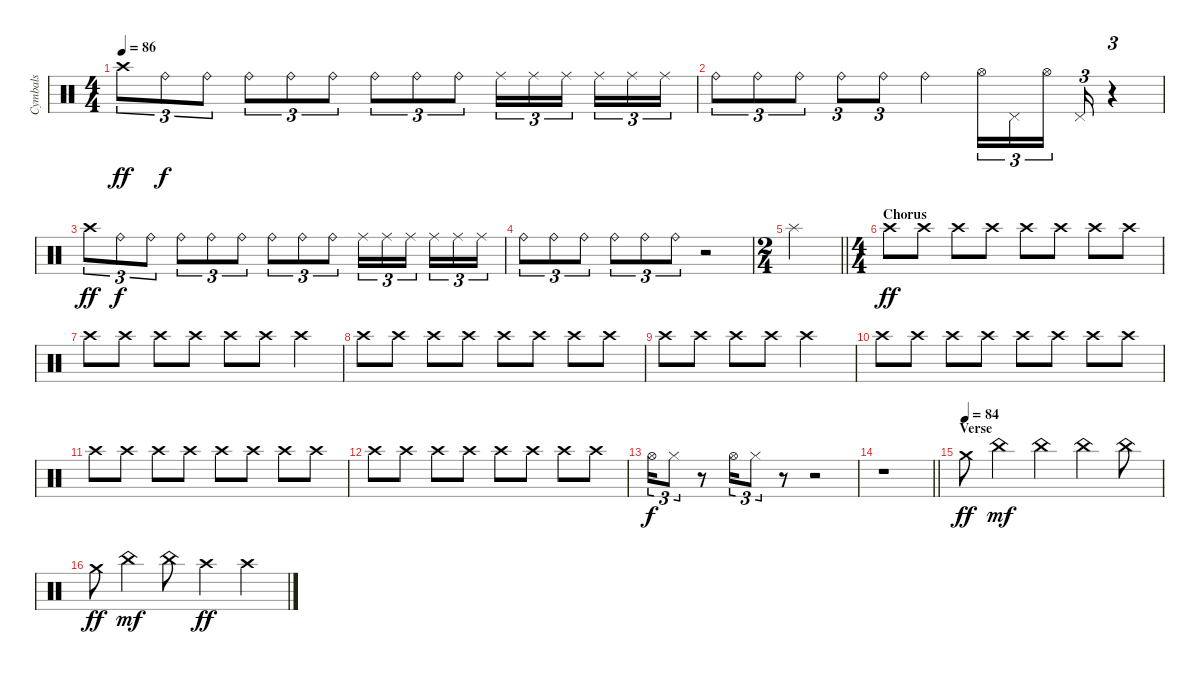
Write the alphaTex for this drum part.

\track ("Cymbals" "Cymbals") {instrument percussion}
\staff {score}
\articulation defaults
\ts (4 4)
\tempo 86
\clef neutral
\ks c "Crash high (hit)".8{tu (3 2) dy ff} "Ride (bell)".8{tu (3 2) dy f} "Ride (bell)".8{tu (3 2)} "Ride (bell)".8{tu (3 2)} "Ride (bell)".8{tu (3 2)} "Ride (bell)".8{tu (3 2)} "Ride (bell)".8{tu (3 2)} "Ride (bell)".8{tu (3 2)} "Ride (bell)".8{tu (3 2)} "Ride (middle)".16{tu (3 2)} "Ride (middle)".16{tu (3 2)} "Ride (middle)".16{tu (3 2) beam splitsecondary} "Ride (middle)".16{tu (3 2)} "Ride (middle)".16{tu (3 2)} "Ride (middle)".16{tu (3 2)}
|
"Ride (bell)".8{tu (3 2)} "Ride (bell)".8{tu (3 2)} "Ride (bell)".8{tu (3 2)} "Ride (bell)".8{tu (3 2)} "Ride (bell)".8{tu (3 2)} "Ride (bell)".4 "Hi-Hat (open)".16{tu (3 2)} "Pedal Hi-Hat (hit)".16{tu (3 2)} "Hi-Hat (open)".16{tu (3 2)} "Pedal Hi-Hat (hit)".16{tu (3 2)} r.4{tu (3 2)} |
"Crash high (hit)".8{tu (3 2) dy ff} "Ride (bell)".8{tu (3 2) dy f} "Ride (bell)".8{tu (3 2)} "Ride (bell)".8{tu (3 2)} "Ride (bell)".8{tu (3 2)} "Ride (bell)".8{tu (3 2)} "Ride (bell)".8{tu (3 2)} "Ride (bell)".8{tu (3 2)} "Ride (bell)".8{tu (3 2)} "Ride (middle)".16{tu (3 2)} "Ride (middle)".16{tu (3 2)} "Ride (middle)".16{tu (3 2) beam splitsecondary} "Ride (middle)".16{tu (3 2)} "Ride (middle)".16{tu (3 2)} "Ride (middle)".16{tu (3 2)} |
"Ride (bell)".8{tu (3 2)} "Ride (bell)".8{tu (3 2)} "Ride (bell)".8{tu (3 2)} "Ride (bell)".8{tu (3 2)} "Ride (bell)".8{tu (3 2)} "Ride (bell)".8{tu (3 2)} r.2 |
\ts (2 4)
\barLineRight lightlight "Splash (hit)".2
|
\ts (4 4)
\section ("" "Chorus")
"Crash high (hit)".8{dy ff} "Crash high (hit)".8 "Crash high (hit)".8 "Crash high (hit)".8 "Crash high (hit)".8 "Crash high (hit)".8 "Crash high (hit)".8 "Crash high (hit)".8 |
"Crash high (hit)".8 "Crash high (hit)".8 "Crash high (hit)".8 "Crash high (hit)".8 "Crash high (hit)".8 "Crash high (hit)".8 "Crash high (hit)".4 |
"Crash high (hit)".8 "Crash high (hit)".8 "Crash high (hit)".8 "Crash high (hit)".8 "Crash high (hit)".8 "Crash high (hit)".8 "Crash high (hit)".8 "Crash high (hit)".8 |
"Crash high (hit)".8 "Crash high (hit)".8 "Crash high (hit)".8 "Crash high (hit)".8 "Crash high (hit)".2 |
"Crash high (hit)".8 "Crash high (hit)".8 "Crash high (hit)".8 "Crash high (hit)".8 "Crash high (hit)".8 "Crash high (hit)".8 "Crash high (hit)".8 "Crash high (hit)".8 |
"Crash high (hit)".8 "Crash high (hit)".8 "Crash high (hit)".8 "Crash high (hit)".8 "Crash high (hit)".8 "Crash high (hit)".8 "Crash high (hit)".8 "Crash high (hit)".8 |
"Crash high (hit)".8 "Crash high (hit)".8 "Crash high (hit)".8 "Crash high (hit)".8 "Crash high (hit)".8 "Crash high (hit)".8 "Crash high (hit)".8 "Crash high (hit)".8 |
"Hi-Hat (open)".16{tu (3 2) dy f} "Hi-Hat (closed)".8{tu (3 2)} r.8 "Hi-Hat (open)".16{tu (3 2)} "Hi-Hat (closed)".8{tu (3 2)} r.8 r.2 |
\barLineRight lightlight
r.1 |
\section ("" "Verse")
\tempo (84)
"Crash medium (hit)".8{dy ff} "China (hit)".4{dy mf} "China (hit)".4 "China (hit)".4 "China (hit)".8 |
"Crash medium (hit)".8{dy ff} "China (hit)".4{dy mf} "China (hit)".8 "Crash high (hit)".4{dy ff} "Crash high (hit)".4
